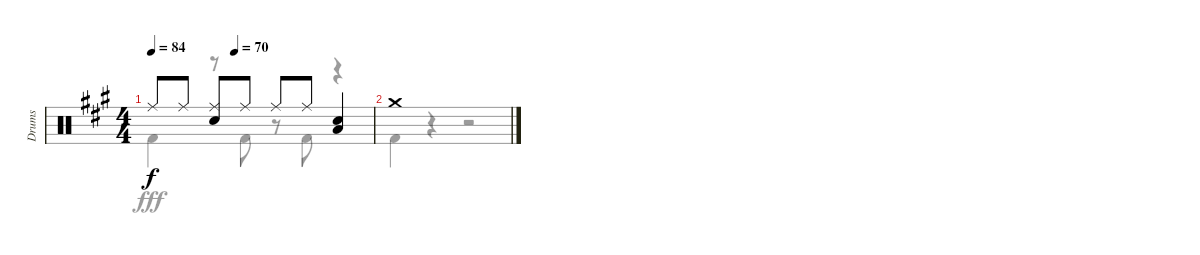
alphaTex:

\track ("Drums" "Drums") {instrument percussion}
\staff {score}
\articulation defaults
\voice
\ts (4 4)
\tempo 84
\tempo (70 0.375)
\clef neutral
\ks a "Ride (middle)".8{dy f} "Ride (middle)".8
("Ride (middle)" "Snare (hit) 2").8 "Ride (middle)".8 "Ride (middle)".8 "Ride (middle)".8 ("Snare (hit) 2" "Low Tom (hit)").4 |
"Crash medium (hit)".1
\voice
\clef neutral
\ottava regular
\simile none
\ks a "Kick (hit) 2".4{dy fff}
r.8 "Kick (hit) 2".8 r.8 "Kick (hit) 2".8 r.4 |
"Kick (hit) 2".4 r.4 r.2
